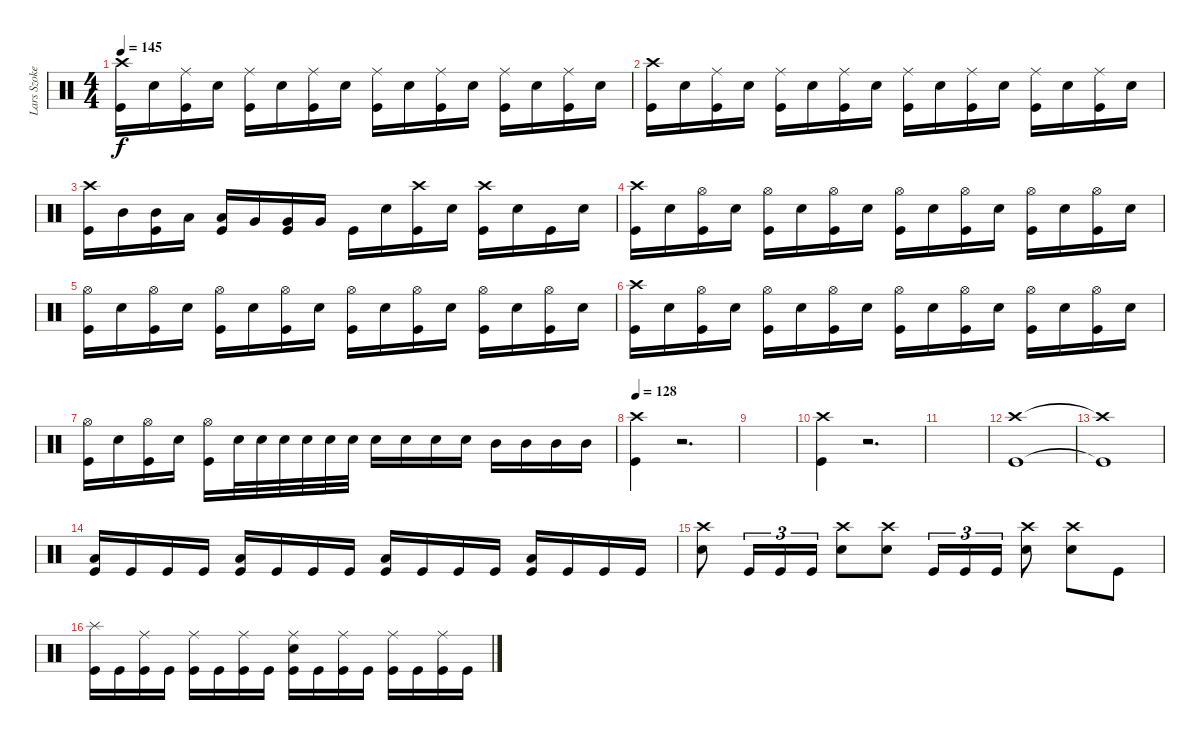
\track ("Lars Szoke" "Lars Szoke") {instrument percussion}
\staff {score}
\articulation defaults
\ts (4 4)
\tempo 145
\clef neutral
\ks c
("Crash high (hit)" "Kick (hit)").16{dy f} "Snare (hit) 2".16 ("Ride (middle)" "Kick (hit)").16 "Snare (hit) 2".16 ("Ride (middle)" "Kick (hit)").16 "Snare (hit) 2".16 ("Ride (middle)" "Kick (hit)").16 "Snare (hit) 2".16 ("Ride (middle)" "Kick (hit)").16 "Snare (hit) 2".16 ("Ride (middle)" "Kick (hit)").16 "Snare (hit) 2".16 ("Ride (middle)" "Kick (hit)").16 "Snare (hit) 2".16 ("Ride (middle)" "Kick (hit)").16 "Snare (hit) 2".16 |
("Crash high (hit)" "Kick (hit)").16 "Snare (hit) 2".16 ("Ride (middle)" "Kick (hit)").16 "Snare (hit) 2".16 ("Ride (middle)" "Kick (hit)").16 "Snare (hit) 2".16 ("Ride (middle)" "Kick (hit)").16 "Snare (hit) 2".16 ("Ride (middle)" "Kick (hit)").16 "Snare (hit) 2".16 ("Ride (middle)" "Kick (hit)").16 "Snare (hit) 2".16 ("Ride (middle)" "Kick (hit)").16 "Snare (hit) 2".16 ("Ride (middle)" "Kick (hit)").16 "Snare (hit) 2".16 |
("Crash high (hit)" "Kick (hit)").16 "Mid Tom (hit)".16 ("Mid Tom (hit)" "Kick (hit)").16 "Low Tom (hit)".16 ("Low Tom (hit)" "Kick (hit)").16 "Very Low Tom (hit)".16 ("Very Low Tom (hit)" "Kick (hit)").16 "Very Low Tom (hit)".16 "Kick (hit)".16 "Snare (hit) 2".16 ("Crash high (hit)" "Kick (hit)").16 "Snare (hit) 2".16 ("Crash high (hit)" "Kick (hit)").16 "Snare (hit) 2".16 "Kick (hit)".16 "Snare (hit) 2".16 |
("Crash high (hit)" "Kick (hit)").16 "Snare (hit) 2".16 ("Hi-Hat (open)" "Kick (hit)").16 "Snare (hit) 2".16 ("Hi-Hat (open)" "Kick (hit)").16 "Snare (hit) 2".16 ("Hi-Hat (open)" "Kick (hit)").16 "Snare (hit) 2".16 ("Hi-Hat (open)" "Kick (hit)").16 "Snare (hit) 2".16 ("Hi-Hat (open)" "Kick (hit)").16 "Snare (hit) 2".16 ("Hi-Hat (open)" "Kick (hit)").16 "Snare (hit) 2".16 ("Hi-Hat (open)" "Kick (hit)").16 "Snare (hit) 2".16 |
("Hi-Hat (open)" "Kick (hit)").16 "Snare (hit) 2".16 ("Hi-Hat (open)" "Kick (hit)").16 "Snare (hit) 2".16 ("Hi-Hat (open)" "Kick (hit)").16 "Snare (hit) 2".16 ("Hi-Hat (open)" "Kick (hit)").16 "Snare (hit) 2".16 ("Hi-Hat (open)" "Kick (hit)").16 "Snare (hit) 2".16 ("Hi-Hat (open)" "Kick (hit)").16 "Snare (hit) 2".16 ("Hi-Hat (open)" "Kick (hit)").16 "Snare (hit) 2".16 ("Hi-Hat (open)" "Kick (hit)").16 "Snare (hit) 2".16 |
("Crash high (hit)" "Kick (hit)").16 "Snare (hit) 2".16 ("Hi-Hat (open)" "Kick (hit)").16 "Snare (hit) 2".16 ("Hi-Hat (open)" "Kick (hit)").16 "Snare (hit) 2".16 ("Hi-Hat (open)" "Kick (hit)").16 "Snare (hit) 2".16 ("Hi-Hat (open)" "Kick (hit)").16 "Snare (hit) 2".16 ("Hi-Hat (open)" "Kick (hit)").16 "Snare (hit) 2".16 ("Hi-Hat (open)" "Kick (hit)").16 "Snare (hit) 2".16 ("Hi-Hat (open)" "Kick (hit)").16 "Snare (hit) 2".16 |
("Hi-Hat (open)" "Kick (hit)").16 "Snare (hit) 2".16 ("Hi-Hat (open)" "Kick (hit)").16 "Snare (hit) 2".16 ("Hi-Hat (open)" "Kick (hit)").16 "Snare (hit) 2".32 "Snare (hit) 2".32 "Snare (hit) 2".32 "Snare (hit) 2".32 "Snare (hit) 2".32 "Snare (hit) 2".32 "Snare (hit) 2".16 "Snare (hit) 2".16 "Snare (hit) 2".16 "Snare (hit) 2".16 "Mid Tom (hit)".16 "Mid Tom (hit)".16 "Mid Tom (hit)".16 "Mid Tom (hit)".16 |
\tempo 128
("Crash high (hit)" "Kick (hit)").4 r.2{d} |
|
("Crash high (hit)" "Kick (hit)").4 r.2{d} |
|
("Crash high (hit)" "Kick (hit)").1 |
("Crash high (hit)"{t} "Kick (hit)"{t}).1 |
("Low Floor Tom (hit)" "Kick (hit)").16 "Kick (hit)".16 "Kick (hit)".16 "Kick (hit)".16 ("Low Floor Tom (hit)" "Kick (hit)").16 "Kick (hit)".16 "Kick (hit)".16 "Kick (hit)".16 ("Low Floor Tom (hit)" "Kick (hit)").16 "Kick (hit)".16 "Kick (hit)".16 "Kick (hit)".16 ("Low Floor Tom (hit)" "Kick (hit)").16 "Kick (hit)".16 "Kick (hit)".16 "Kick (hit)".16 |
("Crash high (hit)" "Snare (hit) 2").8 "Kick (hit)".16{tu (3 2)} "Kick (hit)".16{tu (3 2)} "Kick (hit)".16{tu (3 2)} ("Crash high (hit)" "Snare (hit) 2").8 ("Crash high (hit)" "Snare (hit) 2").8 "Kick (hit)".16{tu (3 2)} "Kick (hit)".16{tu (3 2)} "Kick (hit)".16{tu (3 2)} ("Crash high (hit)" "Snare (hit) 2").8 ("Crash high (hit)" "Snare (hit) 2").8 "Kick (hit)".8 |
("Splash (hit)" "Kick (hit)").16 "Kick (hit)".16 ("Ride (middle)" "Kick (hit)").16 "Kick (hit)".16 ("Ride (middle)" "Kick (hit)").16 "Kick (hit)".16 ("Ride (middle)" "Kick (hit)").16 "Kick (hit)".16 ("Ride (middle)" "Snare (hit) 2" "Kick (hit)").16 "Kick (hit)".16 ("Ride (middle)" "Kick (hit)").16 "Kick (hit)".16 ("Ride (middle)" "Kick (hit)").16 "Kick (hit)".16 ("Ride (middle)" "Kick (hit)").16 "Kick (hit)".16
